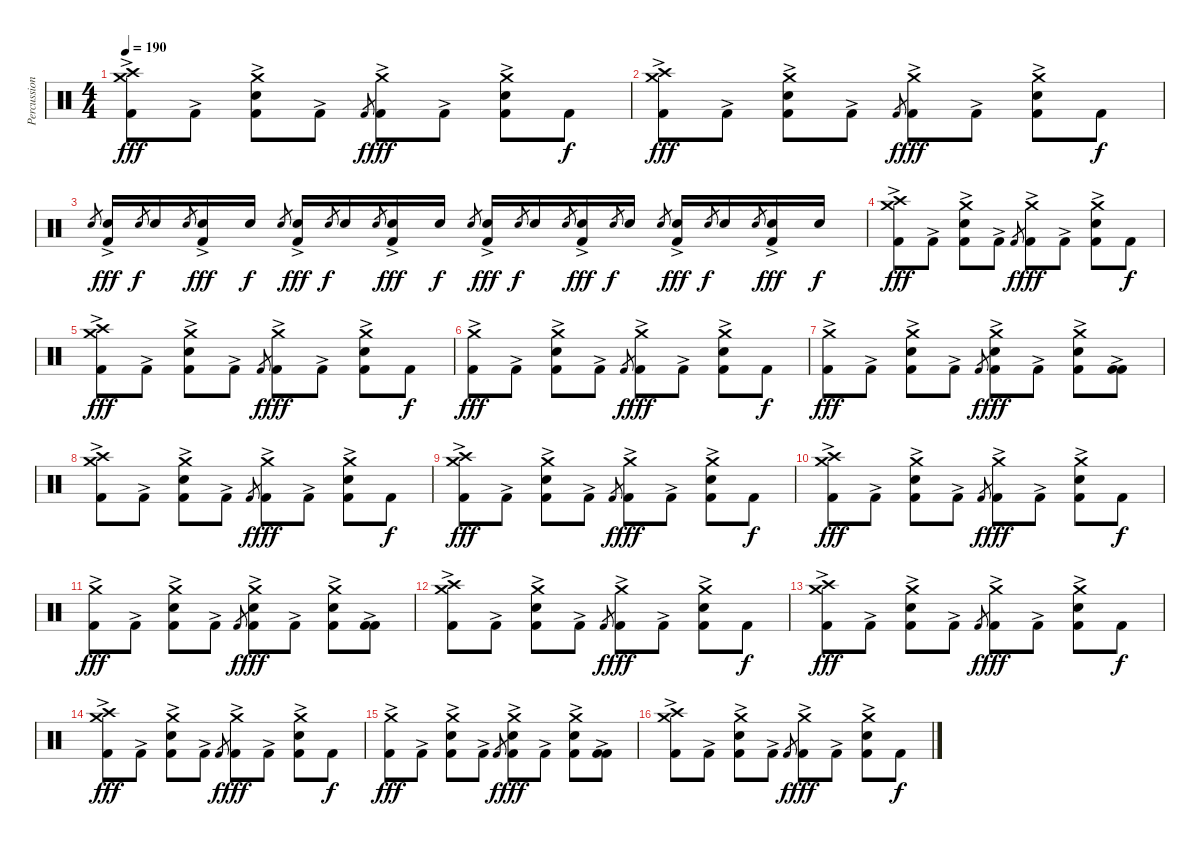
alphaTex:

\track ("Percussions" "Percussion") {instrument percussion}
\staff {score}
\articulation defaults
\ts (4 4)
\tempo 190
\clef neutral
\ks c
("Crash high (hit)" "Crash medium (hit)" "Kick (hit) 2"{ac}).8{dy fff} "Kick (hit) 2"{ac}.8 ("Crash medium (hit)" "Electric Snare (hit)" "Kick (hit) 2"{ac}).8 "Kick (hit) 2"{ac}.8 "Kick (hit) 2".8{gr dy f} ("Crash medium (hit)" "Kick (hit) 2"{ac}).8{dy fff} "Kick (hit) 2"{ac}.8 ("Crash medium (hit)" "Electric Snare (hit)" "Kick (hit) 2"{ac}).8 "Kick (hit) 2".8{dy f} |
("Crash high (hit)" "Crash medium (hit)" "Kick (hit) 2"{ac}).8{dy fff} "Kick (hit) 2"{ac}.8 ("Crash medium (hit)" "Electric Snare (hit)" "Kick (hit) 2"{ac}).8 "Kick (hit) 2"{ac}.8 "Kick (hit) 2".8{gr dy f} ("Crash medium (hit)" "Kick (hit) 2"{ac}).8{dy fff} "Kick (hit) 2"{ac}.8 ("Crash medium (hit)" "Electric Snare (hit)" "Kick (hit) 2"{ac}).8 "Kick (hit) 2".8{dy f} |
"Electric Snare (hit)".8{gr} ("Electric Snare (hit)" "Kick (hit) 2"{ac}).16{dy fff} "Electric Snare (hit)".8{gr dy f} "Electric Snare (hit)".16 "Electric Snare (hit)".8{gr} ("Electric Snare (hit)" "Kick (hit) 2"{ac}).16{dy fff} "Electric Snare (hit)".16{dy f} "Electric Snare (hit)".8{gr} ("Electric Snare (hit)" "Kick (hit) 2"{ac}).16{dy fff} "Electric Snare (hit)".8{gr dy f} "Electric Snare (hit)".16 "Electric Snare (hit)".8{gr} ("Electric Snare (hit)" "Kick (hit) 2"{ac}).16{dy fff} "Electric Snare (hit)".16{dy f} "Electric Snare (hit)".8{gr} ("Electric Snare (hit)" "Kick (hit) 2"{ac}).16{dy fff} "Electric Snare (hit)".8{gr dy f} "Electric Snare (hit)".16 "Electric Snare (hit)".8{gr} ("Electric Snare (hit)" "Kick (hit) 2"{ac}).16{dy fff} "Electric Snare (hit)".8{gr dy f} "Electric Snare (hit)".16 "Electric Snare (hit)".8{gr} ("Electric Snare (hit)" "Kick (hit) 2"{ac}).16{dy fff} "Electric Snare (hit)".8{gr dy f} "Electric Snare (hit)".16 "Electric Snare (hit)".8{gr} ("Electric Snare (hit)" "Kick (hit) 2"{ac}).16{dy fff} "Electric Snare (hit)".16{dy f} |
("Crash high (hit)" "Crash medium (hit)" "Kick (hit) 2"{ac}).8{dy fff} "Kick (hit) 2"{ac}.8 ("Crash medium (hit)" "Electric Snare (hit)" "Kick (hit) 2"{ac}).8 "Kick (hit) 2"{ac}.8 "Kick (hit) 2".8{gr dy f} ("Crash medium (hit)" "Kick (hit) 2"{ac}).8{dy fff} "Kick (hit) 2"{ac}.8 ("Crash medium (hit)" "Electric Snare (hit)" "Kick (hit) 2"{ac}).8 "Kick (hit) 2".8{dy f} |
("Crash high (hit)" "Crash medium (hit)" "Kick (hit) 2"{ac}).8{dy fff} "Kick (hit) 2"{ac}.8 ("Crash medium (hit)" "Electric Snare (hit)" "Kick (hit) 2"{ac}).8 "Kick (hit) 2"{ac}.8 "Kick (hit) 2".8{gr dy f} ("Crash medium (hit)" "Kick (hit) 2"{ac}).8{dy fff} "Kick (hit) 2"{ac}.8 ("Crash medium (hit)" "Electric Snare (hit)" "Kick (hit) 2"{ac}).8 "Kick (hit) 2".8{dy f} |
("Crash medium (hit)" "Kick (hit) 2"{ac}).8{dy fff} "Kick (hit) 2"{ac}.8 ("Crash medium (hit)" "Electric Snare (hit)" "Kick (hit) 2"{ac}).8 "Kick (hit) 2"{ac}.8 "Kick (hit) 2".8{gr dy f} ("Crash medium (hit)" "Kick (hit) 2"{ac}).8{dy fff} "Kick (hit) 2"{ac}.8 ("Crash medium (hit)" "Electric Snare (hit)" "Kick (hit) 2"{ac}).8 "Kick (hit) 2".8{dy f} |
("Crash medium (hit)" "Kick (hit) 2"{ac}).8{dy fff} "Kick (hit) 2"{ac}.8 ("Crash medium (hit)" "Electric Snare (hit)" "Kick (hit) 2"{ac}).8 "Kick (hit) 2"{ac}.8 "Kick (hit) 2".8{gr dy f} ("Crash medium (hit)" "Electric Snare (hit)" "Kick (hit) 2"{ac}).8{dy fff} "Kick (hit) 2"{ac}.8 ("Crash medium (hit)" "Electric Snare (hit)" "Kick (hit) 2"{ac}).8 ("Kick (hit) 2" "Kick (hit) 2"{ac}).8 |
("Crash high (hit)" "Crash medium (hit)" "Kick (hit) 2"{ac}).8 "Kick (hit) 2"{ac}.8 ("Crash medium (hit)" "Electric Snare (hit)" "Kick (hit) 2"{ac}).8 "Kick (hit) 2"{ac}.8 "Kick (hit) 2".8{gr dy f} ("Crash medium (hit)" "Kick (hit) 2"{ac}).8{dy fff} "Kick (hit) 2"{ac}.8 ("Crash medium (hit)" "Electric Snare (hit)" "Kick (hit) 2"{ac}).8 "Kick (hit) 2".8{dy f} |
("Crash high (hit)" "Crash medium (hit)" "Kick (hit) 2"{ac}).8{dy fff} "Kick (hit) 2"{ac}.8 ("Crash medium (hit)" "Electric Snare (hit)" "Kick (hit) 2"{ac}).8 "Kick (hit) 2"{ac}.8 "Kick (hit) 2".8{gr dy f} ("Crash medium (hit)" "Kick (hit) 2"{ac}).8{dy fff} "Kick (hit) 2"{ac}.8 ("Crash medium (hit)" "Electric Snare (hit)" "Kick (hit) 2"{ac}).8 "Kick (hit) 2".8{dy f} |
("Crash high (hit)" "Crash medium (hit)" "Kick (hit) 2"{ac}).8{dy fff} "Kick (hit) 2"{ac}.8 ("Crash medium (hit)" "Electric Snare (hit)" "Kick (hit) 2"{ac}).8 "Kick (hit) 2"{ac}.8 "Kick (hit) 2".8{gr dy f} ("Crash medium (hit)" "Kick (hit) 2"{ac}).8{dy fff} "Kick (hit) 2"{ac}.8 ("Crash medium (hit)" "Electric Snare (hit)" "Kick (hit) 2"{ac}).8 "Kick (hit) 2".8{dy f} |
("Crash medium (hit)" "Kick (hit) 2"{ac}).8{dy fff} "Kick (hit) 2"{ac}.8 ("Crash medium (hit)" "Electric Snare (hit)" "Kick (hit) 2"{ac}).8 "Kick (hit) 2"{ac}.8 "Kick (hit) 2".8{gr dy f} ("Crash medium (hit)" "Electric Snare (hit)" "Kick (hit) 2"{ac}).8{dy fff} "Kick (hit) 2"{ac}.8 ("Crash medium (hit)" "Electric Snare (hit)" "Kick (hit) 2"{ac}).8 ("Kick (hit) 2" "Kick (hit) 2"{ac}).8 |
("Crash high (hit)" "Crash medium (hit)" "Kick (hit) 2"{ac}).8 "Kick (hit) 2"{ac}.8 ("Crash medium (hit)" "Electric Snare (hit)" "Kick (hit) 2"{ac}).8 "Kick (hit) 2"{ac}.8 "Kick (hit) 2".8{gr dy f} ("Crash medium (hit)" "Kick (hit) 2"{ac}).8{dy fff} "Kick (hit) 2"{ac}.8 ("Crash medium (hit)" "Electric Snare (hit)" "Kick (hit) 2"{ac}).8 "Kick (hit) 2".8{dy f} |
("Crash high (hit)" "Crash medium (hit)" "Kick (hit) 2"{ac}).8{dy fff} "Kick (hit) 2"{ac}.8 ("Crash medium (hit)" "Electric Snare (hit)" "Kick (hit) 2"{ac}).8 "Kick (hit) 2"{ac}.8 "Kick (hit) 2".8{gr dy f} ("Crash medium (hit)" "Kick (hit) 2"{ac}).8{dy fff} "Kick (hit) 2"{ac}.8 ("Crash medium (hit)" "Electric Snare (hit)" "Kick (hit) 2"{ac}).8 "Kick (hit) 2".8{dy f} |
("Crash high (hit)" "Crash medium (hit)" "Kick (hit) 2"{ac}).8{dy fff} "Kick (hit) 2"{ac}.8 ("Crash medium (hit)" "Electric Snare (hit)" "Kick (hit) 2"{ac}).8 "Kick (hit) 2"{ac}.8 "Kick (hit) 2".8{gr dy f} ("Crash medium (hit)" "Kick (hit) 2"{ac}).8{dy fff} "Kick (hit) 2"{ac}.8 ("Crash medium (hit)" "Electric Snare (hit)" "Kick (hit) 2"{ac}).8 "Kick (hit) 2".8{dy f} |
("Crash medium (hit)" "Kick (hit) 2"{ac}).8{dy fff} "Kick (hit) 2"{ac}.8 ("Crash medium (hit)" "Electric Snare (hit)" "Kick (hit) 2"{ac}).8 "Kick (hit) 2"{ac}.8 "Kick (hit) 2".8{gr dy f} ("Crash medium (hit)" "Electric Snare (hit)" "Kick (hit) 2"{ac}).8{dy fff} "Kick (hit) 2"{ac}.8 ("Crash medium (hit)" "Electric Snare (hit)" "Kick (hit) 2"{ac}).8 ("Kick (hit) 2" "Kick (hit) 2"{ac}).8 |
("Crash high (hit)" "Crash medium (hit)" "Kick (hit) 2"{ac}).8 "Kick (hit) 2"{ac}.8 ("Crash medium (hit)" "Electric Snare (hit)" "Kick (hit) 2"{ac}).8 "Kick (hit) 2"{ac}.8 "Kick (hit) 2".8{gr dy f} ("Crash medium (hit)" "Kick (hit) 2"{ac}).8{dy fff} "Kick (hit) 2"{ac}.8 ("Crash medium (hit)" "Electric Snare (hit)" "Kick (hit) 2"{ac}).8 "Kick (hit) 2".8{dy f}
